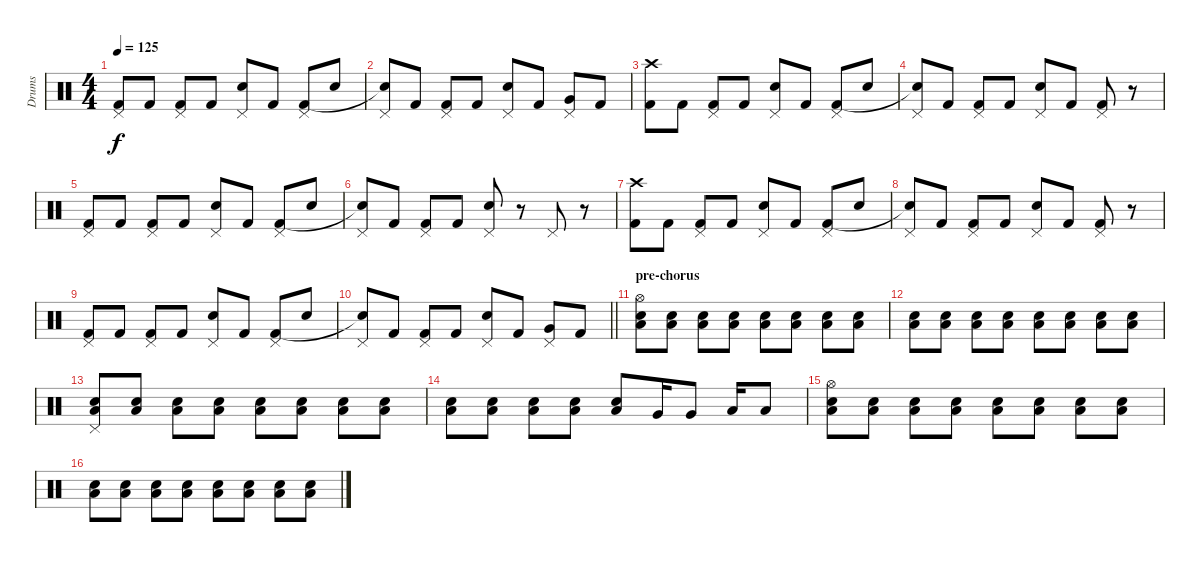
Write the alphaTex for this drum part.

\track ("Drums" "Drums") {instrument percussion}
\staff {score}
\articulation defaults
\ts (4 4)
\tempo 125
\clef neutral
\ks c
("Pedal Hi-Hat (hit)" "Kick (hit) 2").8{dy f} "Kick (hit) 2".8 ("Pedal Hi-Hat (hit)" "Kick (hit) 2").8 "Kick (hit) 2".8 ("Pedal Hi-Hat (hit)" "Snare (hit) 2").8 "Kick (hit) 2".8 ("Pedal Hi-Hat (hit)" "Kick (hit) 2").8 "Snare (hit) 2".8 |
("Pedal Hi-Hat (hit)" "Snare (hit)"{t}).8 "Kick (hit) 2".8 ("Pedal Hi-Hat (hit)" "Kick (hit) 2").8 "Kick (hit) 2".8 ("Pedal Hi-Hat (hit)" "Snare (hit) 2").8 "Kick (hit) 2".8 ("Pedal Hi-Hat (hit)" "Very Low Tom (hit)").8 "Kick (hit) 2".8 |
("Crash high (hit)" "Kick (hit) 2").8 "Kick (hit) 2".8 ("Pedal Hi-Hat (hit)" "Kick (hit) 2").8 "Kick (hit) 2".8 ("Pedal Hi-Hat (hit)" "Snare (hit) 2").8 "Kick (hit) 2".8 ("Pedal Hi-Hat (hit)" "Kick (hit) 2").8 "Snare (hit) 2".8 |
("Pedal Hi-Hat (hit)" "Snare (hit)"{t}).8 "Kick (hit) 2".8 ("Pedal Hi-Hat (hit)" "Kick (hit) 2").8 "Kick (hit) 2".8 ("Pedal Hi-Hat (hit)" "Snare (hit) 2").8 "Kick (hit) 2".8 ("Pedal Hi-Hat (hit)" "Kick (hit) 2").8 r.8 |
("Pedal Hi-Hat (hit)" "Kick (hit) 2").8 "Kick (hit) 2".8 ("Pedal Hi-Hat (hit)" "Kick (hit) 2").8 "Kick (hit) 2".8 ("Pedal Hi-Hat (hit)" "Snare (hit) 2").8 "Kick (hit) 2".8 ("Pedal Hi-Hat (hit)" "Kick (hit) 2").8 "Snare (hit) 2".8 |
("Pedal Hi-Hat (hit)" "Snare (hit)"{t}).8 "Kick (hit) 2".8 ("Pedal Hi-Hat (hit)" "Kick (hit) 2").8 "Kick (hit) 2".8 ("Pedal Hi-Hat (hit)" "Snare (hit) 2").8 r.8 "Pedal Hi-Hat (hit)".8 r.8 |
("Crash high (hit)" "Kick (hit) 2").8 "Kick (hit) 2".8 ("Pedal Hi-Hat (hit)" "Kick (hit) 2").8 "Kick (hit) 2".8 ("Pedal Hi-Hat (hit)" "Snare (hit) 2").8 "Kick (hit) 2".8 ("Pedal Hi-Hat (hit)" "Kick (hit) 2").8 "Snare (hit) 2".8 |
("Pedal Hi-Hat (hit)" "Snare (hit)"{t}).8 "Kick (hit) 2".8 ("Pedal Hi-Hat (hit)" "Kick (hit) 2").8 "Kick (hit) 2".8 ("Pedal Hi-Hat (hit)" "Snare (hit) 2").8 "Kick (hit) 2".8 ("Pedal Hi-Hat (hit)" "Kick (hit) 2").8 r.8 |
("Pedal Hi-Hat (hit)" "Kick (hit) 2").8 "Kick (hit) 2".8 ("Pedal Hi-Hat (hit)" "Kick (hit) 2").8 "Kick (hit) 2".8 ("Pedal Hi-Hat (hit)" "Snare (hit) 2").8 "Kick (hit) 2".8 ("Pedal Hi-Hat (hit)" "Kick (hit) 2").8 "Snare (hit) 2".8 |
\barLineRight lightlight
("Pedal Hi-Hat (hit)" "Snare (hit)"{t}).8 "Kick (hit) 2".8 ("Pedal Hi-Hat (hit)" "Kick (hit) 2").8 "Kick (hit) 2".8 ("Pedal Hi-Hat (hit)" "Snare (hit) 2").8 "Kick (hit) 2".8 ("Pedal Hi-Hat (hit)" "Very Low Tom (hit)").8 "Kick (hit) 2".8 |
\section ("" "pre-chorus")
("Hi-Hat (open)" "Snare (hit) 2" "Low Floor Tom (hit)").8 ("Snare (hit) 2" "Low Floor Tom (hit)").8 ("Snare (hit) 2" "Low Floor Tom (hit)").8 ("Snare (hit) 2" "Low Floor Tom (hit)").8 ("Snare (hit) 2" "Low Floor Tom (hit)").8 ("Snare (hit) 2" "Low Floor Tom (hit)").8 ("Snare (hit) 2" "Low Floor Tom (hit)").8 ("Snare (hit) 2" "Low Floor Tom (hit)").8 |
("Snare (hit) 2" "Low Floor Tom (hit)").8 ("Snare (hit) 2" "Low Floor Tom (hit)").8 ("Snare (hit) 2" "Low Floor Tom (hit)").8 ("Snare (hit) 2" "Low Floor Tom (hit)").8 ("Snare (hit) 2" "Low Floor Tom (hit)").8 ("Snare (hit) 2" "Low Floor Tom (hit)").8 ("Snare (hit) 2" "Low Floor Tom (hit)").8 ("Snare (hit) 2" "Low Floor Tom (hit)").8 |
("Pedal Hi-Hat (hit)" "Snare (hit) 2" "Low Floor Tom (hit)").8 ("Snare (hit) 2" "Low Floor Tom (hit)").8 ("Snare (hit) 2" "Low Floor Tom (hit)").8 ("Snare (hit) 2" "Low Floor Tom (hit)").8 ("Snare (hit) 2" "Low Floor Tom (hit)").8 ("Snare (hit) 2" "Low Floor Tom (hit)").8 ("Snare (hit) 2" "Low Floor Tom (hit)").8 ("Snare (hit) 2" "Low Floor Tom (hit)").8 |
("Snare (hit) 2" "Low Floor Tom (hit)").8 ("Snare (hit) 2" "Low Floor Tom (hit)").8 ("Snare (hit) 2" "Low Floor Tom (hit)").8 ("Snare (hit) 2" "Low Floor Tom (hit)").8 ("Snare (hit) 2" "Low Floor Tom (hit)").8 "Very Low Tom (hit)".16 "Very Low Tom (hit)".8 "Low Floor Tom (hit)".16 "Low Floor Tom (hit)".8 |
("Hi-Hat (open)" "Snare (hit) 2" "Low Floor Tom (hit)").8 ("Snare (hit) 2" "Low Floor Tom (hit)").8 ("Snare (hit) 2" "Low Floor Tom (hit)").8 ("Snare (hit) 2" "Low Floor Tom (hit)").8 ("Snare (hit) 2" "Low Floor Tom (hit)").8 ("Snare (hit) 2" "Low Floor Tom (hit)").8 ("Snare (hit) 2" "Low Floor Tom (hit)").8 ("Snare (hit) 2" "Low Floor Tom (hit)").8 |
("Snare (hit) 2" "Low Floor Tom (hit)").8 ("Snare (hit) 2" "Low Floor Tom (hit)").8 ("Snare (hit) 2" "Low Floor Tom (hit)").8 ("Snare (hit) 2" "Low Floor Tom (hit)").8 ("Snare (hit) 2" "Low Floor Tom (hit)").8 ("Snare (hit) 2" "Low Floor Tom (hit)").8 ("Snare (hit) 2" "Low Floor Tom (hit)").8 ("Snare (hit) 2" "Low Floor Tom (hit)").8
